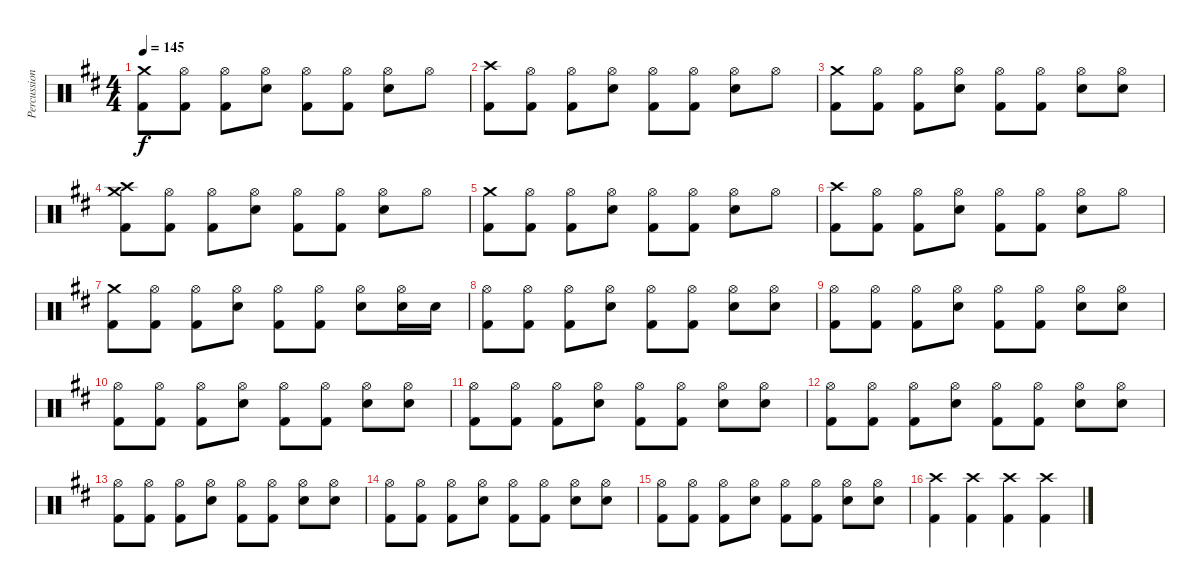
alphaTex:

\track ("Percussion" "Percussion") {instrument percussion}
\staff {score}
\articulation defaults
\ts (4 4)
\tempo 145
\clef neutral
\ks d
("Crash medium (hit)" "Kick (hit) 2").8{dy f} ("Hi-Hat (open)" "Kick (hit) 2").8 ("Hi-Hat (open)" "Kick (hit) 2").8 ("Hi-Hat (open)" "Electric Snare (hit)").8 ("Hi-Hat (open)" "Kick (hit) 2").8 ("Hi-Hat (open)" "Kick (hit) 2").8 ("Hi-Hat (open)" "Electric Snare (hit)").8 "Hi-Hat (open)".8 |
("Crash high (hit)" "Kick (hit) 2").8 ("Hi-Hat (open)" "Kick (hit) 2").8 ("Hi-Hat (open)" "Kick (hit) 2").8 ("Hi-Hat (open)" "Electric Snare (hit)").8 ("Hi-Hat (open)" "Kick (hit) 2").8 ("Hi-Hat (open)" "Kick (hit) 2").8 ("Hi-Hat (open)" "Electric Snare (hit)").8 "Hi-Hat (open)".8 |
("Crash medium (hit)" "Kick (hit) 2").8 ("Hi-Hat (open)" "Kick (hit) 2").8 ("Hi-Hat (open)" "Kick (hit) 2").8 ("Hi-Hat (open)" "Electric Snare (hit)").8 ("Hi-Hat (open)" "Kick (hit) 2").8 ("Hi-Hat (open)" "Kick (hit) 2").8 ("Hi-Hat (open)" "Electric Snare (hit)").8 ("Hi-Hat (open)" "Electric Snare (hit)").8 |
("Crash high (hit)" "Crash medium (hit)" "Kick (hit) 2").8 ("Hi-Hat (open)" "Kick (hit) 2").8 ("Hi-Hat (open)" "Kick (hit) 2").8 ("Hi-Hat (open)" "Electric Snare (hit)").8 ("Hi-Hat (open)" "Kick (hit) 2").8 ("Hi-Hat (open)" "Kick (hit) 2").8 ("Hi-Hat (open)" "Electric Snare (hit)").8 "Hi-Hat (open)".8 |
("Crash medium (hit)" "Kick (hit) 2").8 ("Hi-Hat (open)" "Kick (hit) 2").8 ("Hi-Hat (open)" "Kick (hit) 2").8 ("Hi-Hat (open)" "Electric Snare (hit)").8 ("Hi-Hat (open)" "Kick (hit) 2").8 ("Hi-Hat (open)" "Kick (hit) 2").8 ("Hi-Hat (open)" "Electric Snare (hit)").8 "Hi-Hat (open)".8 |
("Crash high (hit)" "Kick (hit) 2").8 ("Hi-Hat (open)" "Kick (hit) 2").8 ("Hi-Hat (open)" "Kick (hit) 2").8 ("Hi-Hat (open)" "Electric Snare (hit)").8 ("Hi-Hat (open)" "Kick (hit) 2").8 ("Hi-Hat (open)" "Kick (hit) 2").8 ("Hi-Hat (open)" "Electric Snare (hit)").8 "Hi-Hat (open)".8 |
("Crash medium (hit)" "Kick (hit) 2").8 ("Hi-Hat (open)" "Kick (hit) 2").8 ("Hi-Hat (open)" "Kick (hit) 2").8 ("Hi-Hat (open)" "Electric Snare (hit)").8 ("Hi-Hat (open)" "Kick (hit) 2").8 ("Hi-Hat (open)" "Kick (hit) 2").8 ("Hi-Hat (open)" "Electric Snare (hit)").8 ("Hi-Hat (open)" "Electric Snare (hit)").16 "Electric Snare (hit)".16 |
("Hi-Hat (open)" "Kick (hit) 2").8{volume 16} ("Hi-Hat (open)" "Kick (hit) 2").8 ("Hi-Hat (open)" "Kick (hit) 2").8 ("Hi-Hat (open)" "Electric Snare (hit)").8 ("Hi-Hat (open)" "Kick (hit) 2").8 ("Hi-Hat (open)" "Kick (hit) 2").8 ("Hi-Hat (open)" "Electric Snare (hit)").8 ("Hi-Hat (open)" "Electric Snare (hit)").8 |
("Hi-Hat (open)" "Kick (hit) 2").8 ("Hi-Hat (open)" "Kick (hit) 2").8 ("Hi-Hat (open)" "Kick (hit) 2").8 ("Hi-Hat (open)" "Electric Snare (hit)").8 ("Hi-Hat (open)" "Kick (hit) 2").8 ("Hi-Hat (open)" "Kick (hit) 2").8 ("Hi-Hat (open)" "Electric Snare (hit)").8 ("Hi-Hat (open)" "Electric Snare (hit)").8 |
("Hi-Hat (open)" "Kick (hit) 2").8 ("Hi-Hat (open)" "Kick (hit) 2").8 ("Hi-Hat (open)" "Kick (hit) 2").8 ("Hi-Hat (open)" "Electric Snare (hit)").8 ("Hi-Hat (open)" "Kick (hit) 2").8 ("Hi-Hat (open)" "Kick (hit) 2").8 ("Hi-Hat (open)" "Electric Snare (hit)").8 ("Hi-Hat (open)" "Electric Snare (hit)").8 |
("Hi-Hat (open)" "Kick (hit) 2").8 ("Hi-Hat (open)" "Kick (hit) 2").8 ("Hi-Hat (open)" "Kick (hit) 2").8 ("Hi-Hat (open)" "Electric Snare (hit)").8 ("Hi-Hat (open)" "Kick (hit) 2").8 ("Hi-Hat (open)" "Kick (hit) 2").8 ("Hi-Hat (open)" "Electric Snare (hit)").8 ("Hi-Hat (open)" "Electric Snare (hit)").8 |
("Hi-Hat (open)" "Kick (hit) 2").8 ("Hi-Hat (open)" "Kick (hit) 2").8 ("Hi-Hat (open)" "Kick (hit) 2").8 ("Hi-Hat (open)" "Electric Snare (hit)").8 ("Hi-Hat (open)" "Kick (hit) 2").8 ("Hi-Hat (open)" "Kick (hit) 2").8 ("Hi-Hat (open)" "Electric Snare (hit)").8 ("Hi-Hat (open)" "Electric Snare (hit)").8 |
("Hi-Hat (open)" "Kick (hit) 2").8 ("Hi-Hat (open)" "Kick (hit) 2").8 ("Hi-Hat (open)" "Kick (hit) 2").8 ("Hi-Hat (open)" "Electric Snare (hit)").8 ("Hi-Hat (open)" "Kick (hit) 2").8 ("Hi-Hat (open)" "Kick (hit) 2").8 ("Hi-Hat (open)" "Electric Snare (hit)").8 ("Hi-Hat (open)" "Electric Snare (hit)").8 |
("Hi-Hat (open)" "Kick (hit) 2").8 ("Hi-Hat (open)" "Kick (hit) 2").8 ("Hi-Hat (open)" "Kick (hit) 2").8 ("Hi-Hat (open)" "Electric Snare (hit)").8 ("Hi-Hat (open)" "Kick (hit) 2").8 ("Hi-Hat (open)" "Kick (hit) 2").8 ("Hi-Hat (open)" "Electric Snare (hit)").8 ("Hi-Hat (open)" "Electric Snare (hit)").8 |
("Hi-Hat (open)" "Kick (hit) 2").8 ("Hi-Hat (open)" "Kick (hit) 2").8 ("Hi-Hat (open)" "Kick (hit) 2").8 ("Hi-Hat (open)" "Electric Snare (hit)").8 ("Hi-Hat (open)" "Kick (hit) 2").8 ("Hi-Hat (open)" "Kick (hit) 2").8 ("Hi-Hat (open)" "Electric Snare (hit)").8 ("Hi-Hat (open)" "Electric Snare (hit)").8 |
("Crash high (hit)" "Kick (hit) 2").4 ("Crash high (hit)" "Kick (hit) 2").4 ("Crash high (hit)" "Kick (hit) 2").4 ("Crash high (hit)" "Kick (hit) 2").4
